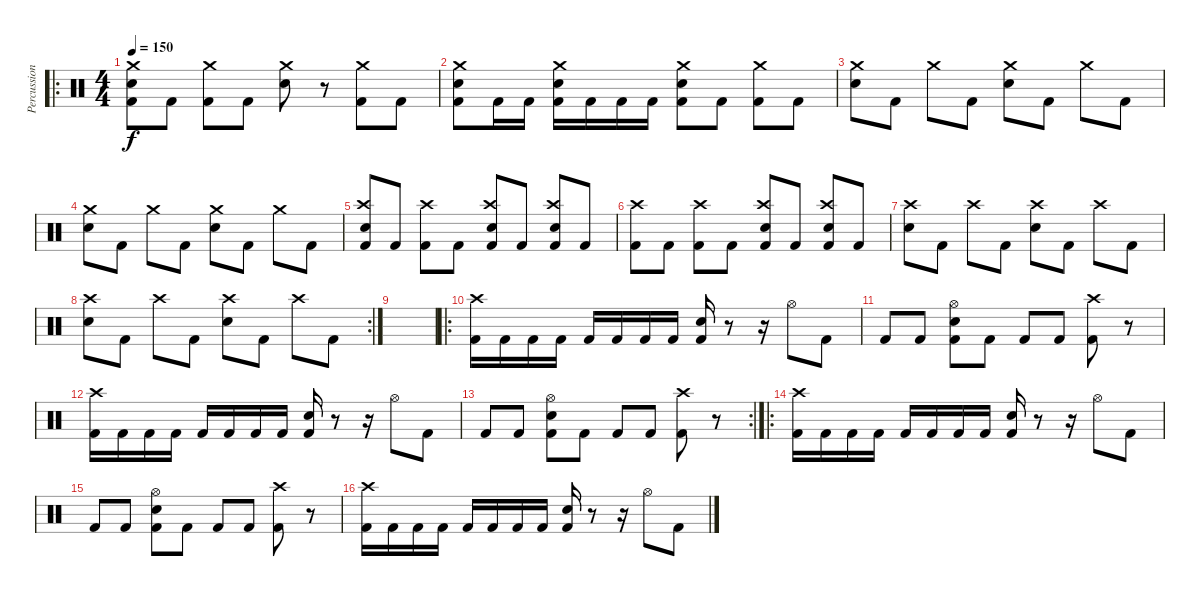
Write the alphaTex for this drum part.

\track ("Percussion" "Percussion") {instrument percussion}
\staff {score}
\articulation defaults
\ro
\ts (4 4)
\tempo 150
\clef neutral
\ks c
("Crash medium (hit)" "Snare (hit) 2" "Kick (hit) 2").8{dy f} "Kick (hit) 2".8 ("Crash medium (hit)" "Kick (hit) 2").8 "Kick (hit) 2".8 ("Crash medium (hit)" "Snare (hit) 2").8 r.8 ("Crash medium (hit)" "Kick (hit) 2").8 "Kick (hit) 2".8 |
("Snare (hit) 2" "Crash medium (hit)" "Kick (hit) 2").8 "Kick (hit) 2".16 "Kick (hit) 2".16 ("Snare (hit) 2" "Crash medium (hit)" "Kick (hit) 2").16 "Kick (hit) 2".16 "Kick (hit) 2".16 "Kick (hit) 2".16 ("Snare (hit) 2" "Crash medium (hit)" "Kick (hit) 2").8 "Kick (hit) 2".8 ("Crash medium (hit)" "Kick (hit) 2").8 "Kick (hit) 2".8 |
("Crash medium (hit)" "Snare (hit) 2").8 "Kick (hit) 2".8 "Crash medium (hit)".8 "Kick (hit) 2".8 ("Crash medium (hit)" "Snare (hit) 2").8 "Kick (hit) 2".8 "Crash medium (hit)".8 "Kick (hit) 2".8 |
("Crash medium (hit)" "Snare (hit) 2").8 "Kick (hit) 2".8 "Crash medium (hit)".8 "Kick (hit) 2".8 ("Crash medium (hit)" "Snare (hit) 2").8 "Kick (hit) 2".8 "Crash medium (hit)".8 "Kick (hit) 2".8 |
("Crash high (hit)" "Electric Snare (hit)" "Kick (hit) 2").8 "Kick (hit) 2".8 ("Crash high (hit)" "Kick (hit) 2").8 "Kick (hit) 2".8 ("Crash high (hit)" "Electric Snare (hit)" "Kick (hit) 2").8 "Kick (hit) 2".8 ("Crash high (hit)" "Electric Snare (hit)" "Kick (hit) 2").8 "Kick (hit) 2".8 |
("Crash high (hit)" "Kick (hit) 2").8 "Kick (hit) 2".8 ("Crash high (hit)" "Kick (hit) 2").8 "Kick (hit) 2".8 ("Crash high (hit)" "Electric Snare (hit)" "Kick (hit) 2").8 "Kick (hit) 2".8 ("Crash high (hit)" "Electric Snare (hit)" "Kick (hit) 2").8 "Kick (hit) 2".8 |
("Crash high (hit)" "Snare (hit) 2").8 "Kick (hit) 2".8 "Crash high (hit)".8 "Kick (hit) 2".8 ("Crash high (hit)" "Snare (hit) 2").8 "Kick (hit) 2".8 "Crash high (hit)".8 "Kick (hit) 2".8 |
\rc 2
("Crash high (hit)" "Snare (hit) 2").8 "Kick (hit) 2".8 "Crash high (hit)".8 "Kick (hit) 2".8 ("Crash high (hit)" "Snare (hit) 2").8 "Kick (hit) 2".8 "Crash high (hit)".8 "Kick (hit) 2".8 |
|
\ro
("Crash high (hit)" "Kick (hit) 2").16 "Kick (hit) 2".16 "Kick (hit) 2".16 "Kick (hit) 2".16 "Kick (hit) 2".16 "Kick (hit) 2".16 "Kick (hit) 2".16 "Kick (hit) 2".16 ("Electric Snare (hit)" "Kick (hit) 2").16 r.8 r.16 "Hi-Hat (open)".8 "Kick (hit) 2".8 |
"Kick (hit) 2".8 "Kick (hit) 2".8 ("Hi-Hat (open)" "Electric Snare (hit)" "Kick (hit) 2").8 "Kick (hit) 2".8 "Kick (hit) 2".8 "Kick (hit) 2".8 ("Crash high (hit)" "Kick (hit) 2").8 r.8 |
("Crash high (hit)" "Kick (hit) 2").16 "Kick (hit) 2".16 "Kick (hit) 2".16 "Kick (hit) 2".16 "Kick (hit) 2".16 "Kick (hit) 2".16 "Kick (hit) 2".16 "Kick (hit) 2".16 ("Electric Snare (hit)" "Kick (hit) 2").16 r.8 r.16 "Hi-Hat (open)".8 "Kick (hit) 2".8 |
\rc 2 "Kick (hit) 2".8 "Kick (hit) 2".8
("Hi-Hat (open)" "Electric Snare (hit)" "Kick (hit) 2").8 "Kick (hit) 2".8 "Kick (hit) 2".8 "Kick (hit) 2".8 ("Crash high (hit)" "Kick (hit) 2").8 r.8 |
\ro
("Crash high (hit)" "Kick (hit) 2").16 "Kick (hit) 2".16 "Kick (hit) 2".16 "Kick (hit) 2".16 "Kick (hit) 2".16 "Kick (hit) 2".16 "Kick (hit) 2".16 "Kick (hit) 2".16 ("Electric Snare (hit)" "Kick (hit) 2").16 r.8 r.16 "Hi-Hat (open)".8 "Kick (hit) 2".8 |
"Kick (hit) 2".8 "Kick (hit) 2".8 ("Hi-Hat (open)" "Electric Snare (hit)" "Kick (hit) 2").8 "Kick (hit) 2".8 "Kick (hit) 2".8 "Kick (hit) 2".8 ("Crash high (hit)" "Kick (hit) 2").8 r.8 |
("Crash high (hit)" "Kick (hit) 2").16 "Kick (hit) 2".16 "Kick (hit) 2".16 "Kick (hit) 2".16 "Kick (hit) 2".16 "Kick (hit) 2".16 "Kick (hit) 2".16 "Kick (hit) 2".16 ("Electric Snare (hit)" "Kick (hit) 2").16 r.8 r.16 "Hi-Hat (open)".8 "Kick (hit) 2".8
